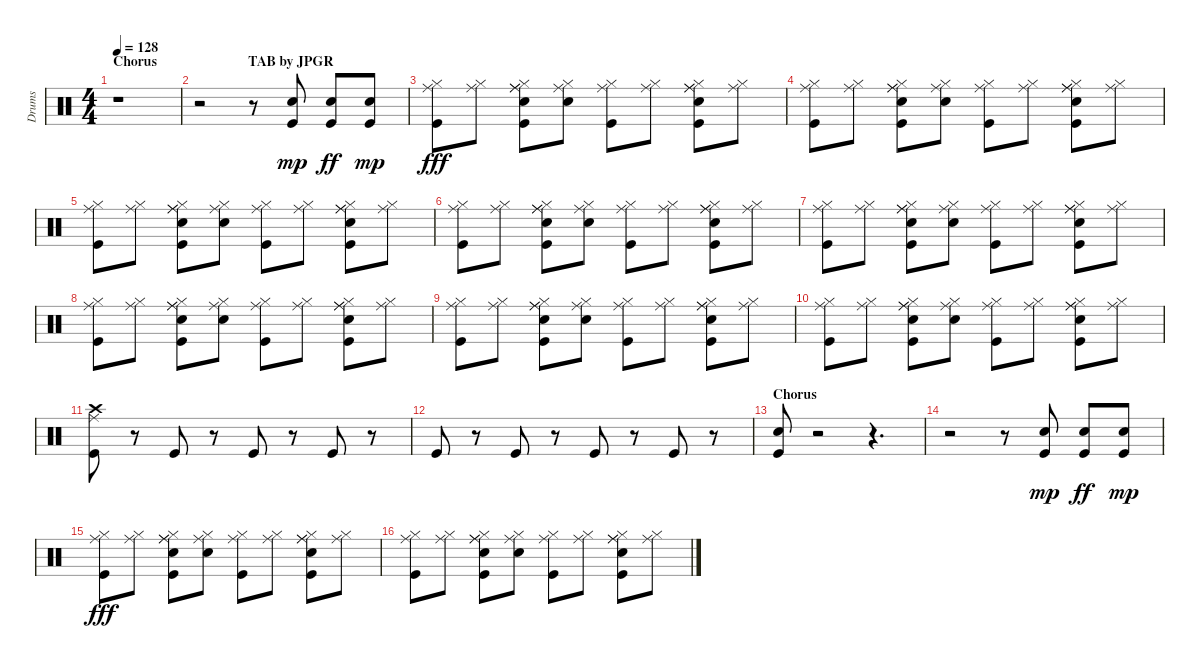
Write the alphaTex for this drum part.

\track ("Drums               " "Drums     ") {instrument percussion}
\staff {score}
\articulation defaults
\ts (4 4)
\section ("" "Chorus                          TAB by JPGR")
\tempo 128
\clef neutral
\ks c
r.1{dy mp} |
r.2 r.8 ("Electric Snare (hit)" "Kick (hit)").8 ("Electric Snare (hit)" "Kick (hit)").8{dy ff} ("Electric Snare (hit)" "Kick (hit)").8{dy mp} |
("Ride (middle)" "Hi-Hat (closed)" "Kick (hit)").8{dy fff} ("Ride (middle)" "Hi-Hat (closed)").8 ("Ride (middle)" "Hi-Hat (closed)" "Ride (middle)" "Electric Snare (hit)" "Kick (hit)").8 ("Ride (middle)" "Hi-Hat (closed)" "Electric Snare (hit)").8 ("Ride (middle)" "Hi-Hat (closed)" "Kick (hit)").8 ("Ride (middle)" "Hi-Hat (closed)").8 ("Ride (middle)" "Hi-Hat (closed)" "Ride (middle)" "Electric Snare (hit)" "Kick (hit)").8 ("Ride (middle)" "Hi-Hat (closed)").8 |
("Ride (middle)" "Hi-Hat (closed)" "Kick (hit)").8 ("Ride (middle)" "Hi-Hat (closed)").8 ("Ride (middle)" "Hi-Hat (closed)" "Ride (middle)" "Electric Snare (hit)" "Kick (hit)").8 ("Ride (middle)" "Hi-Hat (closed)" "Electric Snare (hit)").8 ("Ride (middle)" "Hi-Hat (closed)" "Kick (hit)").8 ("Ride (middle)" "Hi-Hat (closed)").8 ("Ride (middle)" "Hi-Hat (closed)" "Ride (middle)" "Electric Snare (hit)" "Kick (hit)").8 ("Ride (middle)" "Hi-Hat (closed)").8 |
("Ride (middle)" "Hi-Hat (closed)" "Kick (hit)").8 ("Ride (middle)" "Hi-Hat (closed)").8 ("Ride (middle)" "Hi-Hat (closed)" "Ride (middle)" "Electric Snare (hit)" "Kick (hit)").8 ("Ride (middle)" "Hi-Hat (closed)" "Electric Snare (hit)").8 ("Ride (middle)" "Hi-Hat (closed)" "Kick (hit)").8 ("Ride (middle)" "Hi-Hat (closed)").8 ("Ride (middle)" "Hi-Hat (closed)" "Ride (middle)" "Electric Snare (hit)" "Kick (hit)").8 ("Ride (middle)" "Hi-Hat (closed)").8 |
("Ride (middle)" "Hi-Hat (closed)" "Kick (hit)").8 ("Ride (middle)" "Hi-Hat (closed)").8 ("Ride (middle)" "Hi-Hat (closed)" "Ride (middle)" "Electric Snare (hit)" "Kick (hit)").8 ("Ride (middle)" "Hi-Hat (closed)" "Electric Snare (hit)").8 ("Ride (middle)" "Hi-Hat (closed)" "Kick (hit)").8 ("Ride (middle)" "Hi-Hat (closed)").8 ("Ride (middle)" "Hi-Hat (closed)" "Ride (middle)" "Electric Snare (hit)" "Kick (hit)").8 ("Ride (middle)" "Hi-Hat (closed)").8 |
("Ride (middle)" "Hi-Hat (closed)" "Kick (hit)").8 ("Ride (middle)" "Hi-Hat (closed)").8 ("Ride (middle)" "Hi-Hat (closed)" "Ride (middle)" "Electric Snare (hit)" "Kick (hit)").8 ("Ride (middle)" "Hi-Hat (closed)" "Electric Snare (hit)").8 ("Ride (middle)" "Hi-Hat (closed)" "Kick (hit)").8 ("Ride (middle)" "Hi-Hat (closed)").8 ("Ride (middle)" "Hi-Hat (closed)" "Ride (middle)" "Electric Snare (hit)" "Kick (hit)").8 ("Ride (middle)" "Hi-Hat (closed)").8 |
("Ride (middle)" "Hi-Hat (closed)" "Kick (hit)").8 ("Ride (middle)" "Hi-Hat (closed)").8 ("Ride (middle)" "Hi-Hat (closed)" "Ride (middle)" "Electric Snare (hit)" "Kick (hit)").8 ("Ride (middle)" "Hi-Hat (closed)" "Electric Snare (hit)").8 ("Ride (middle)" "Hi-Hat (closed)" "Kick (hit)").8 ("Ride (middle)" "Hi-Hat (closed)").8 ("Ride (middle)" "Hi-Hat (closed)" "Ride (middle)" "Electric Snare (hit)" "Kick (hit)").8 ("Ride (middle)" "Hi-Hat (closed)").8 |
("Ride (middle)" "Hi-Hat (closed)" "Kick (hit)").8 ("Ride (middle)" "Hi-Hat (closed)").8 ("Ride (middle)" "Hi-Hat (closed)" "Ride (middle)" "Electric Snare (hit)" "Kick (hit)").8 ("Ride (middle)" "Hi-Hat (closed)" "Electric Snare (hit)").8 ("Ride (middle)" "Hi-Hat (closed)" "Kick (hit)").8 ("Ride (middle)" "Hi-Hat (closed)").8 ("Ride (middle)" "Hi-Hat (closed)" "Ride (middle)" "Electric Snare (hit)" "Kick (hit)").8 ("Ride (middle)" "Hi-Hat (closed)").8 |
("Ride (middle)" "Hi-Hat (closed)" "Kick (hit)").8 ("Ride (middle)" "Hi-Hat (closed)").8 ("Ride (middle)" "Hi-Hat (closed)" "Ride (middle)" "Electric Snare (hit)" "Kick (hit)").8 ("Ride (middle)" "Hi-Hat (closed)" "Electric Snare (hit)").8 ("Ride (middle)" "Hi-Hat (closed)" "Kick (hit)").8 ("Ride (middle)" "Hi-Hat (closed)").8 ("Ride (middle)" "Hi-Hat (closed)" "Ride (middle)" "Electric Snare (hit)" "Kick (hit)").8 ("Ride (middle)" "Hi-Hat (closed)").8 |
("Crash high (hit)" "Ride (middle)" "Kick (hit)").8 r.8 "Kick (hit)".8 r.8 "Kick (hit)".8 r.8 "Kick (hit)".8 r.8 |
"Kick (hit)".8 r.8 "Kick (hit)".8 r.8 "Kick (hit)".8 r.8 "Kick (hit)".8 r.8 |
\section ("" "Chorus")
("Electric Snare (hit)" "Kick (hit)").8 r.2 r.4{d} |
r.2 r.8 ("Electric Snare (hit)" "Kick (hit)").8{dy mp} ("Electric Snare (hit)" "Kick (hit)").8{dy ff} ("Electric Snare (hit)" "Kick (hit)").8{dy mp} |
("Ride (middle)" "Hi-Hat (closed)" "Kick (hit)").8{dy fff} ("Ride (middle)" "Hi-Hat (closed)").8 ("Ride (middle)" "Hi-Hat (closed)" "Ride (middle)" "Electric Snare (hit)" "Kick (hit)").8 ("Ride (middle)" "Hi-Hat (closed)" "Electric Snare (hit)").8 ("Ride (middle)" "Hi-Hat (closed)" "Kick (hit)").8 ("Ride (middle)" "Hi-Hat (closed)").8 ("Ride (middle)" "Hi-Hat (closed)" "Ride (middle)" "Electric Snare (hit)" "Kick (hit)").8 ("Ride (middle)" "Hi-Hat (closed)").8 |
("Ride (middle)" "Hi-Hat (closed)" "Kick (hit)").8 ("Ride (middle)" "Hi-Hat (closed)").8 ("Ride (middle)" "Hi-Hat (closed)" "Ride (middle)" "Electric Snare (hit)" "Kick (hit)").8 ("Ride (middle)" "Hi-Hat (closed)" "Electric Snare (hit)").8 ("Ride (middle)" "Hi-Hat (closed)" "Kick (hit)").8 ("Ride (middle)" "Hi-Hat (closed)").8 ("Ride (middle)" "Hi-Hat (closed)" "Ride (middle)" "Electric Snare (hit)" "Kick (hit)").8 ("Ride (middle)" "Hi-Hat (closed)").8
